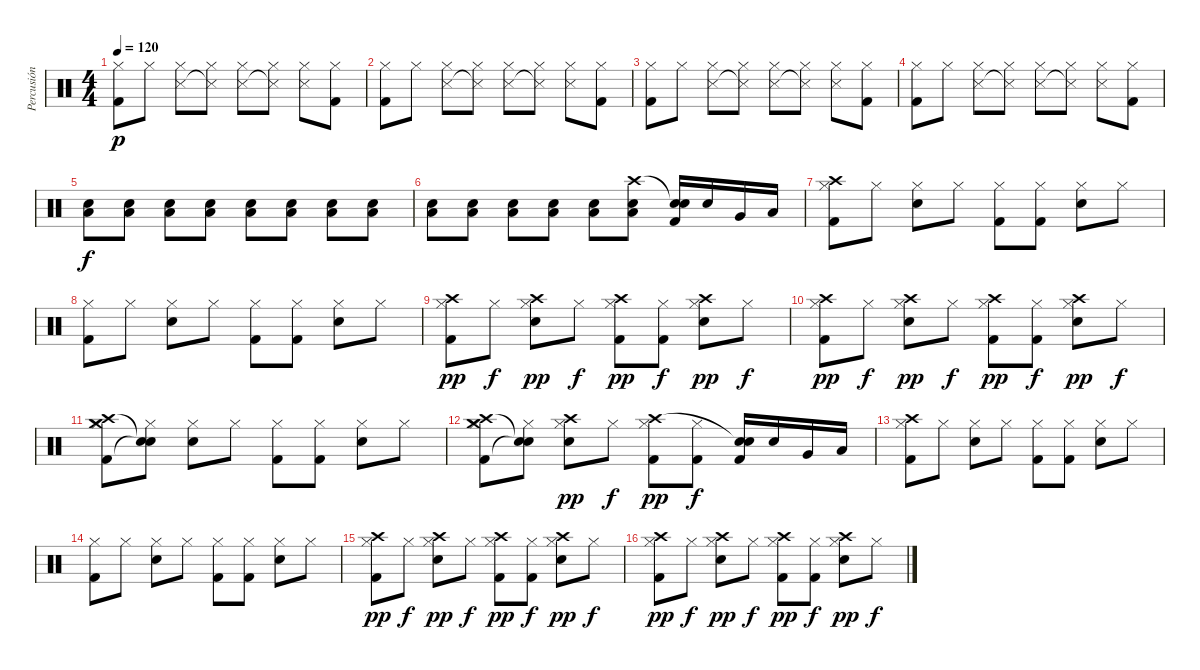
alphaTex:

\track ("Percusión" "Percusión") {instrument percussion}
\staff {score}
\articulation defaults
\ts (4 4)
\tempo 120
\clef neutral
\ks c
("Hi-Hat (closed)" "Kick (hit) 2").8{dy p} "Hi-Hat (closed)".8 ("Metronome (hit)" "Hi-Hat (closed)").8 ("Metronome (hit)"{t} "Hi-Hat (closed)").8 ("Metronome (hit)" "Hi-Hat (closed)").8 ("Metronome (hit)"{t} "Hi-Hat (closed)").8 ("Metronome (hit)" "Hi-Hat (closed)").8 ("Hi-Hat (closed)" "Kick (hit) 2").8 |
("Hi-Hat (closed)" "Kick (hit) 2").8 "Hi-Hat (closed)".8 ("Metronome (hit)" "Hi-Hat (closed)").8 ("Metronome (hit)"{t} "Hi-Hat (closed)").8 ("Metronome (hit)" "Hi-Hat (closed)").8 ("Metronome (hit)"{t} "Hi-Hat (closed)").8 ("Metronome (hit)" "Hi-Hat (closed)").8 ("Hi-Hat (closed)" "Kick (hit) 2").8 |
("Hi-Hat (closed)" "Kick (hit) 2").8 "Hi-Hat (closed)".8 ("Metronome (hit)" "Hi-Hat (closed)").8 ("Metronome (hit)"{t} "Hi-Hat (closed)").8 ("Metronome (hit)" "Hi-Hat (closed)").8 ("Metronome (hit)"{t} "Hi-Hat (closed)").8 ("Metronome (hit)" "Hi-Hat (closed)").8 ("Hi-Hat (closed)" "Kick (hit) 2").8 |
("Hi-Hat (closed)" "Kick (hit) 2").8 "Hi-Hat (closed)".8 ("Metronome (hit)" "Hi-Hat (closed)").8 ("Metronome (hit)"{t} "Hi-Hat (closed)").8 ("Metronome (hit)" "Hi-Hat (closed)").8 ("Metronome (hit)"{t} "Hi-Hat (closed)").8 ("Metronome (hit)" "Hi-Hat (closed)").8 ("Hi-Hat (closed)" "Kick (hit) 2").8 |
("Low Floor Tom (hit)" "Electric Snare (hit)").8{dy f} ("Low Floor Tom (hit)" "Electric Snare (hit)").8 ("Low Floor Tom (hit)" "Electric Snare (hit)").8 ("Low Floor Tom (hit)" "Electric Snare (hit)").8 ("Low Floor Tom (hit)" "Electric Snare (hit)").8 ("Low Floor Tom (hit)" "Electric Snare (hit)").8 ("Low Floor Tom (hit)" "Electric Snare (hit)").8 ("Low Floor Tom (hit)" "Electric Snare (hit)").8 |
("Low Floor Tom (hit)" "Electric Snare (hit)").8 ("Low Floor Tom (hit)" "Electric Snare (hit)").8 ("Low Floor Tom (hit)" "Electric Snare (hit)").8 ("Low Floor Tom (hit)" "Electric Snare (hit)").8 ("Low Floor Tom (hit)" "Electric Snare (hit)").8 ("Low Floor Tom (hit)" "Electric Snare (hit)" "Crash high (hit)").8 ("Electric Snare (hit)" "Kick (hit) 2" "Snare (hit)"{t}).16 "Electric Snare (hit)".16 "Very Low Tom (hit)".16 "Low Floor Tom (hit)".16 |
("Hi-Hat (closed)" "Kick (hit) 2" "Crash high (hit)").8 "Hi-Hat (closed)".8 ("Hi-Hat (closed)" "Electric Snare (hit)").8 "Hi-Hat (closed)".8 ("Hi-Hat (closed)" "Kick (hit) 2").8 ("Hi-Hat (closed)" "Kick (hit) 2").8 ("Hi-Hat (closed)" "Electric Snare (hit)").8 "Hi-Hat (closed)".8 |
("Hi-Hat (closed)" "Kick (hit) 2").8 "Hi-Hat (closed)".8 ("Hi-Hat (closed)" "Electric Snare (hit)").8 "Hi-Hat (closed)".8 ("Hi-Hat (closed)" "Kick (hit) 2").8 ("Hi-Hat (closed)" "Kick (hit) 2").8 ("Hi-Hat (closed)" "Electric Snare (hit)").8 "Hi-Hat (closed)".8 |
("Hi-Hat (closed)" "Kick (hit) 2" "Crash high (hit)").8{dy pp} "Hi-Hat (closed)".8{dy f} ("Hi-Hat (closed)" "Electric Snare (hit)" "Crash high (hit)").8{dy pp} "Hi-Hat (closed)".8{dy f} ("Hi-Hat (closed)" "Kick (hit) 2" "Crash high (hit)").8{dy pp} ("Hi-Hat (closed)" "Kick (hit) 2").8{dy f} ("Hi-Hat (closed)" "Electric Snare (hit)" "Crash high (hit)").8{dy pp} "Hi-Hat (closed)".8{dy f} |
("Hi-Hat (closed)" "Kick (hit) 2" "Crash high (hit)").8{dy pp} "Hi-Hat (closed)".8{dy f} ("Hi-Hat (closed)" "Electric Snare (hit)" "Crash high (hit)").8{dy pp} "Hi-Hat (closed)".8{dy f} ("Hi-Hat (closed)" "Kick (hit) 2" "Crash high (hit)").8{dy pp} ("Hi-Hat (closed)" "Kick (hit) 2").8{dy f} ("Hi-Hat (closed)" "Electric Snare (hit)" "Crash high (hit)").8{dy pp} "Hi-Hat (closed)".8{dy f} |
("Hi-Hat (closed)" "Kick (hit) 2" "Crash high (hit)" "Crash medium (hit)").8 ("Hi-Hat (closed)" "Snare (hit)"{t} "Snare (hit)"{t}).8 ("Hi-Hat (closed)" "Electric Snare (hit)").8 "Hi-Hat (closed)".8 ("Hi-Hat (closed)" "Kick (hit) 2").8 ("Hi-Hat (closed)" "Kick (hit) 2").8 ("Hi-Hat (closed)" "Electric Snare (hit)").8 "Hi-Hat (closed)".8 |
("Hi-Hat (closed)" "Kick (hit) 2" "Crash high (hit)" "Crash medium (hit)").8 ("Hi-Hat (closed)" "Snare (hit)"{t} "Snare (hit)"{t}).8 ("Hi-Hat (closed)" "Electric Snare (hit)" "Crash high (hit)").8{dy pp} "Hi-Hat (closed)".8{dy f} ("Hi-Hat (closed)" "Kick (hit) 2" "Crash high (hit)").8{dy pp} ("Hi-Hat (closed)" "Kick (hit) 2").8{dy f} ("Electric Snare (hit)" "Kick (hit) 2" "Snare (hit)"{t}).16 "Electric Snare (hit)".16 "Very Low Tom (hit)".16 "Low Floor Tom (hit)".16 |
("Hi-Hat (closed)" "Kick (hit) 2" "Crash high (hit)").8 "Hi-Hat (closed)".8 ("Hi-Hat (closed)" "Electric Snare (hit)").8 "Hi-Hat (closed)".8 ("Hi-Hat (closed)" "Kick (hit) 2").8 ("Hi-Hat (closed)" "Kick (hit) 2").8 ("Hi-Hat (closed)" "Electric Snare (hit)").8 "Hi-Hat (closed)".8 |
("Hi-Hat (closed)" "Kick (hit) 2").8 "Hi-Hat (closed)".8 ("Hi-Hat (closed)" "Electric Snare (hit)").8 "Hi-Hat (closed)".8 ("Hi-Hat (closed)" "Kick (hit) 2").8 ("Hi-Hat (closed)" "Kick (hit) 2").8 ("Hi-Hat (closed)" "Electric Snare (hit)").8 "Hi-Hat (closed)".8 |
("Hi-Hat (closed)" "Kick (hit) 2" "Crash high (hit)").8{dy pp} "Hi-Hat (closed)".8{dy f} ("Hi-Hat (closed)" "Electric Snare (hit)" "Crash high (hit)").8{dy pp} "Hi-Hat (closed)".8{dy f} ("Hi-Hat (closed)" "Kick (hit) 2" "Crash high (hit)").8{dy pp} ("Hi-Hat (closed)" "Kick (hit) 2").8{dy f} ("Hi-Hat (closed)" "Electric Snare (hit)" "Crash high (hit)").8{dy pp} "Hi-Hat (closed)".8{dy f} |
("Hi-Hat (closed)" "Kick (hit) 2" "Crash high (hit)").8{dy pp} "Hi-Hat (closed)".8{dy f} ("Hi-Hat (closed)" "Electric Snare (hit)" "Crash high (hit)").8{dy pp} "Hi-Hat (closed)".8{dy f} ("Hi-Hat (closed)" "Kick (hit) 2" "Crash high (hit)").8{dy pp} ("Hi-Hat (closed)" "Kick (hit) 2").8{dy f} ("Hi-Hat (closed)" "Electric Snare (hit)" "Crash high (hit)").8{dy pp} "Hi-Hat (closed)".8{dy f}
